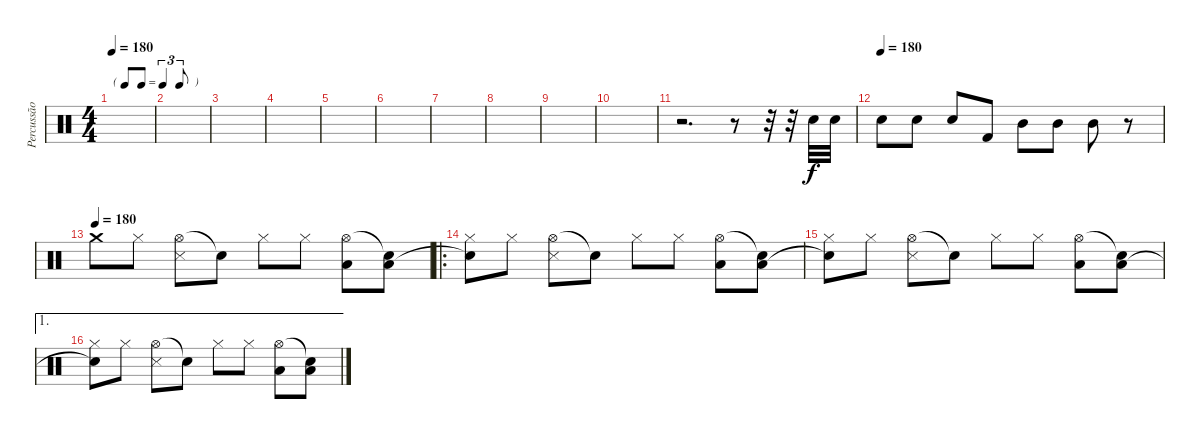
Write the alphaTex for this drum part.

\track ("Percussão" "Percussão") {instrument percussion}
\staff {score}
\articulation defaults
\ts (4 4)
\tf triplet8th
\tempo 180
\clef neutral
\ks c
|
|
|
|
|
|
|
|
|
|
r.2{d} r.8 r.32 r.32 "Electric Snare (hit)".32 "Electric Snare (hit)".32 |
\tempo (180)
"Electric Snare (hit)".8 "Electric Snare (hit)".8 "Electric Snare (hit)".8 "Kick (hit) 2".8 "Mid Tom (hit)".8 "Mid Tom (hit)".8 "Mid Tom (hit)".8 r.8 |
\tempo (180)
"Crash medium (hit)".8 "Hi-Hat (closed)".8 ("Hi-Hat (open)" "Snare (side stick) 3").8 "Snare (hit)"{t}.8 "Hi-Hat (closed)".8 "Hi-Hat (closed)".8 ("Hi-Hat (open)" "Low Tom (hit)").8 ("Snare (hit)"{t} "Low Tom (hit)").8 |
\ro
("Hi-Hat (closed)" "Snare (hit)"{t}).8 "Hi-Hat (closed)".8 ("Hi-Hat (open)" "Snare (side stick) 3").8 "Snare (hit)"{t}.8 "Hi-Hat (closed)".8 "Hi-Hat (closed)".8 ("Hi-Hat (open)" "Low Tom (hit)").8 ("Snare (hit)"{t} "Low Tom (hit)").8 |
("Hi-Hat (closed)" "Snare (hit)"{t}).8 "Hi-Hat (closed)".8 ("Hi-Hat (open)" "Snare (side stick) 3").8 "Snare (hit)"{t}.8 "Hi-Hat (closed)".8 "Hi-Hat (closed)".8 ("Hi-Hat (open)" "Low Tom (hit)").8 ("Snare (hit)"{t} "Low Tom (hit)").8 |
\ae 1
("Hi-Hat (closed)" "Snare (hit)"{t}).8 "Hi-Hat (closed)".8 ("Hi-Hat (open)" "Snare (side stick) 3").8 "Snare (hit)"{t}.8 "Hi-Hat (closed)".8 "Hi-Hat (closed)".8 ("Hi-Hat (open)" "Low Tom (hit)").8 ("Snare (hit)"{t} "Low Tom (hit)").8
